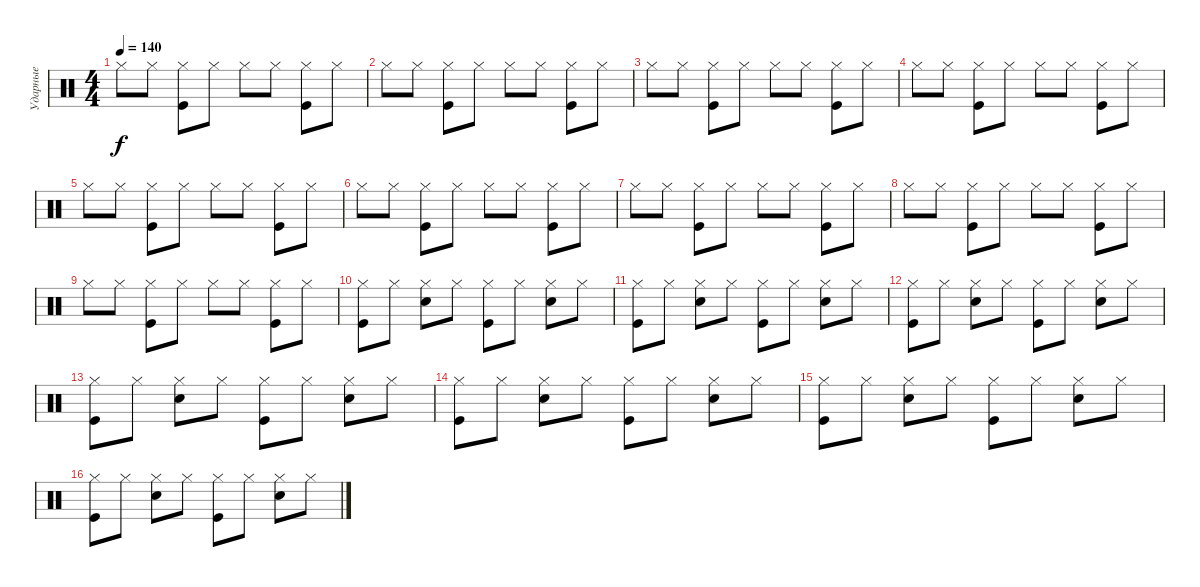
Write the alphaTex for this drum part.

\track ("Ударные" "Ударные") {instrument percussion}
\staff {score}
\articulation defaults
\ts (4 4)
\tempo 140
\clef neutral
\ks c "Hi-Hat (closed)".8{dy f} "Hi-Hat (closed)".8
("Hi-Hat (closed)" "Kick (hit)").8 "Hi-Hat (closed)".8 "Hi-Hat (closed)".8 "Hi-Hat (closed)".8 ("Hi-Hat (closed)" "Kick (hit)").8 "Hi-Hat (closed)".8 |
"Hi-Hat (closed)".8 "Hi-Hat (closed)".8 ("Hi-Hat (closed)" "Kick (hit)").8 "Hi-Hat (closed)".8 "Hi-Hat (closed)".8 "Hi-Hat (closed)".8 ("Hi-Hat (closed)" "Kick (hit)").8 "Hi-Hat (closed)".8 |
"Hi-Hat (closed)".8 "Hi-Hat (closed)".8 ("Hi-Hat (closed)" "Kick (hit)").8 "Hi-Hat (closed)".8 "Hi-Hat (closed)".8 "Hi-Hat (closed)".8 ("Hi-Hat (closed)" "Kick (hit)").8 "Hi-Hat (closed)".8 |
"Hi-Hat (closed)".8 "Hi-Hat (closed)".8 ("Hi-Hat (closed)" "Kick (hit)").8 "Hi-Hat (closed)".8 "Hi-Hat (closed)".8 "Hi-Hat (closed)".8 ("Hi-Hat (closed)" "Kick (hit)").8 "Hi-Hat (closed)".8 |
"Hi-Hat (closed)".8 "Hi-Hat (closed)".8 ("Hi-Hat (closed)" "Kick (hit)").8 "Hi-Hat (closed)".8 "Hi-Hat (closed)".8 "Hi-Hat (closed)".8 ("Hi-Hat (closed)" "Kick (hit)").8 "Hi-Hat (closed)".8 |
"Hi-Hat (closed)".8 "Hi-Hat (closed)".8 ("Hi-Hat (closed)" "Kick (hit)").8 "Hi-Hat (closed)".8 "Hi-Hat (closed)".8 "Hi-Hat (closed)".8 ("Hi-Hat (closed)" "Kick (hit)").8 "Hi-Hat (closed)".8 |
"Hi-Hat (closed)".8 "Hi-Hat (closed)".8 ("Hi-Hat (closed)" "Kick (hit)").8 "Hi-Hat (closed)".8 "Hi-Hat (closed)".8 "Hi-Hat (closed)".8 ("Hi-Hat (closed)" "Kick (hit)").8 "Hi-Hat (closed)".8 |
"Hi-Hat (closed)".8 "Hi-Hat (closed)".8 ("Hi-Hat (closed)" "Kick (hit)").8 "Hi-Hat (closed)".8 "Hi-Hat (closed)".8 "Hi-Hat (closed)".8 ("Hi-Hat (closed)" "Kick (hit)").8 "Hi-Hat (closed)".8 |
"Hi-Hat (closed)".8 "Hi-Hat (closed)".8 ("Hi-Hat (closed)" "Kick (hit)").8 "Hi-Hat (closed)".8 "Hi-Hat (closed)".8 "Hi-Hat (closed)".8 ("Hi-Hat (closed)" "Kick (hit)").8 "Hi-Hat (closed)".8 |
("Hi-Hat (closed)" "Kick (hit)").8 "Hi-Hat (closed)".8 ("Hi-Hat (closed)" "Snare (hit) 2").8 "Hi-Hat (closed)".8 ("Hi-Hat (closed)" "Kick (hit)").8 "Hi-Hat (closed)".8 ("Hi-Hat (closed)" "Snare (hit) 2").8 "Hi-Hat (closed)".8 |
("Hi-Hat (closed)" "Kick (hit)").8 "Hi-Hat (closed)".8 ("Hi-Hat (closed)" "Snare (hit) 2").8 "Hi-Hat (closed)".8 ("Hi-Hat (closed)" "Kick (hit)").8 "Hi-Hat (closed)".8 ("Hi-Hat (closed)" "Snare (hit) 2").8 "Hi-Hat (closed)".8 |
("Hi-Hat (closed)" "Kick (hit)").8 "Hi-Hat (closed)".8 ("Hi-Hat (closed)" "Snare (hit) 2").8 "Hi-Hat (closed)".8 ("Hi-Hat (closed)" "Kick (hit)").8 "Hi-Hat (closed)".8 ("Hi-Hat (closed)" "Snare (hit) 2").8 "Hi-Hat (closed)".8 |
("Hi-Hat (closed)" "Kick (hit)").8 "Hi-Hat (closed)".8 ("Hi-Hat (closed)" "Snare (hit) 2").8 "Hi-Hat (closed)".8 ("Hi-Hat (closed)" "Kick (hit)").8 "Hi-Hat (closed)".8 ("Hi-Hat (closed)" "Snare (hit) 2").8 "Hi-Hat (closed)".8 |
("Hi-Hat (closed)" "Kick (hit)").8 "Hi-Hat (closed)".8 ("Hi-Hat (closed)" "Snare (hit) 2").8 "Hi-Hat (closed)".8 ("Hi-Hat (closed)" "Kick (hit)").8 "Hi-Hat (closed)".8 ("Hi-Hat (closed)" "Snare (hit) 2").8 "Hi-Hat (closed)".8 |
("Hi-Hat (closed)" "Kick (hit)").8 "Hi-Hat (closed)".8 ("Hi-Hat (closed)" "Snare (hit) 2").8 "Hi-Hat (closed)".8 ("Hi-Hat (closed)" "Kick (hit)").8 "Hi-Hat (closed)".8 ("Hi-Hat (closed)" "Snare (hit) 2").8 "Hi-Hat (closed)".8 |
("Hi-Hat (closed)" "Kick (hit)").8 "Hi-Hat (closed)".8 ("Hi-Hat (closed)" "Snare (hit) 2").8 "Hi-Hat (closed)".8 ("Hi-Hat (closed)" "Kick (hit)").8 "Hi-Hat (closed)".8 ("Hi-Hat (closed)" "Snare (hit) 2").8 "Hi-Hat (closed)".8
